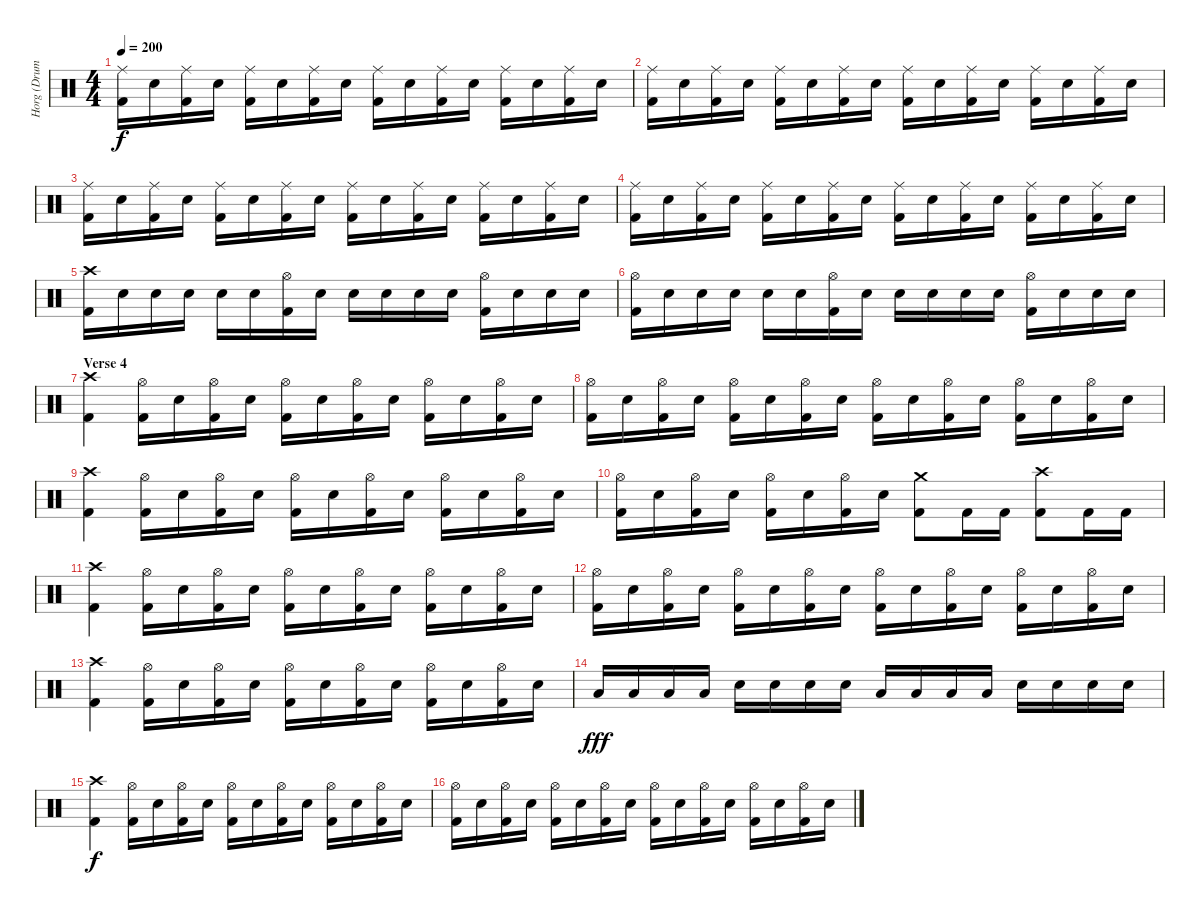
\track ("Horg (Drums)" "Horg (Drum") {instrument percussion}
\staff {score}
\articulation defaults
\ts (4 4)
\tempo 200
\clef neutral
\ks c
("Ride (middle)" "Kick (hit) 2").16{dy f} "Electric Snare (hit)".16 ("Ride (middle)" "Kick (hit) 2").16 "Electric Snare (hit)".16 ("Ride (middle)" "Kick (hit) 2").16 "Electric Snare (hit)".16 ("Ride (middle)" "Kick (hit) 2").16 "Electric Snare (hit)".16 ("Ride (middle)" "Kick (hit) 2").16 "Electric Snare (hit)".16 ("Ride (middle)" "Kick (hit) 2").16 "Electric Snare (hit)".16 ("Ride (middle)" "Kick (hit) 2").16 "Electric Snare (hit)".16 ("Ride (middle)" "Kick (hit) 2").16 "Electric Snare (hit)".16 |
("Ride (middle)" "Kick (hit) 2").16 "Electric Snare (hit)".16 ("Ride (middle)" "Kick (hit) 2").16 "Electric Snare (hit)".16 ("Ride (middle)" "Kick (hit) 2").16 "Electric Snare (hit)".16 ("Ride (middle)" "Kick (hit) 2").16 "Electric Snare (hit)".16 ("Ride (middle)" "Kick (hit) 2").16 "Electric Snare (hit)".16 ("Ride (middle)" "Kick (hit) 2").16 "Electric Snare (hit)".16 ("Ride (middle)" "Kick (hit) 2").16 "Electric Snare (hit)".16 ("Ride (middle)" "Kick (hit) 2").16 "Electric Snare (hit)".16 |
("Ride (middle)" "Kick (hit) 2").16 "Electric Snare (hit)".16 ("Ride (middle)" "Kick (hit) 2").16 "Electric Snare (hit)".16 ("Ride (middle)" "Kick (hit) 2").16 "Electric Snare (hit)".16 ("Ride (middle)" "Kick (hit) 2").16 "Electric Snare (hit)".16 ("Ride (middle)" "Kick (hit) 2").16 "Electric Snare (hit)".16 ("Ride (middle)" "Kick (hit) 2").16 "Electric Snare (hit)".16 ("Ride (middle)" "Kick (hit) 2").16 "Electric Snare (hit)".16 ("Ride (middle)" "Kick (hit) 2").16 "Electric Snare (hit)".16 |
("Ride (middle)" "Kick (hit) 2").16 "Electric Snare (hit)".16 ("Ride (middle)" "Kick (hit) 2").16 "Electric Snare (hit)".16 ("Ride (middle)" "Kick (hit) 2").16 "Electric Snare (hit)".16 ("Ride (middle)" "Kick (hit) 2").16 "Electric Snare (hit)".16 ("Ride (middle)" "Kick (hit) 2").16 "Electric Snare (hit)".16 ("Ride (middle)" "Kick (hit) 2").16 "Electric Snare (hit)".16 ("Ride (middle)" "Kick (hit) 2").16 "Electric Snare (hit)".16 ("Ride (middle)" "Kick (hit) 2").16 "Electric Snare (hit)".16 |
("Crash high (hit)" "Kick (hit) 2").16 "Electric Snare (hit)".16 "Electric Snare (hit)".16 "Electric Snare (hit)".16 "Electric Snare (hit)".16 "Electric Snare (hit)".16 ("Hi-Hat (open)" "Kick (hit) 2").16 "Electric Snare (hit)".16 "Electric Snare (hit)".16 "Electric Snare (hit)".16 "Electric Snare (hit)".16 "Electric Snare (hit)".16 ("Hi-Hat (open)" "Kick (hit) 2").16 "Electric Snare (hit)".16 "Electric Snare (hit)".16 "Electric Snare (hit)".16 |
("Hi-Hat (open)" "Kick (hit) 2").16 "Electric Snare (hit)".16 "Electric Snare (hit)".16 "Electric Snare (hit)".16 "Electric Snare (hit)".16 "Electric Snare (hit)".16 ("Hi-Hat (open)" "Kick (hit) 2").16 "Electric Snare (hit)".16 "Electric Snare (hit)".16 "Electric Snare (hit)".16 "Electric Snare (hit)".16 "Electric Snare (hit)".16 ("Hi-Hat (open)" "Kick (hit) 2").16 "Electric Snare (hit)".16 "Electric Snare (hit)".16 "Electric Snare (hit)".16 |
\section ("" "Verse 4")
("Crash high (hit)" "Kick (hit) 2").4 ("Hi-Hat (open)" "Kick (hit) 2").16 "Electric Snare (hit)".16 ("Hi-Hat (open)" "Kick (hit) 2").16 "Electric Snare (hit)".16 ("Hi-Hat (open)" "Kick (hit) 2").16 "Electric Snare (hit)".16 ("Hi-Hat (open)" "Kick (hit) 2").16 "Electric Snare (hit)".16 ("Hi-Hat (open)" "Kick (hit) 2").16 "Electric Snare (hit)".16 ("Hi-Hat (open)" "Kick (hit) 2").16 "Electric Snare (hit)".16 |
("Hi-Hat (open)" "Kick (hit) 2").16 "Electric Snare (hit)".16 ("Hi-Hat (open)" "Kick (hit) 2").16 "Electric Snare (hit)".16 ("Hi-Hat (open)" "Kick (hit) 2").16 "Electric Snare (hit)".16 ("Hi-Hat (open)" "Kick (hit) 2").16 "Electric Snare (hit)".16 ("Hi-Hat (open)" "Kick (hit) 2").16 "Electric Snare (hit)".16 ("Hi-Hat (open)" "Kick (hit) 2").16 "Electric Snare (hit)".16 ("Hi-Hat (open)" "Kick (hit) 2").16 "Electric Snare (hit)".16 ("Hi-Hat (open)" "Kick (hit) 2").16 "Electric Snare (hit)".16 |
("Crash high (hit)" "Kick (hit) 2").4 ("Hi-Hat (open)" "Kick (hit) 2").16 "Electric Snare (hit)".16 ("Hi-Hat (open)" "Kick (hit) 2").16 "Electric Snare (hit)".16 ("Hi-Hat (open)" "Kick (hit) 2").16 "Electric Snare (hit)".16 ("Hi-Hat (open)" "Kick (hit) 2").16 "Electric Snare (hit)".16 ("Hi-Hat (open)" "Kick (hit) 2").16 "Electric Snare (hit)".16 ("Hi-Hat (open)" "Kick (hit) 2").16 "Electric Snare (hit)".16 |
("Hi-Hat (open)" "Kick (hit) 2").16 "Electric Snare (hit)".16 ("Hi-Hat (open)" "Kick (hit) 2").16 "Electric Snare (hit)".16 ("Hi-Hat (open)" "Kick (hit) 2").16 "Electric Snare (hit)".16 ("Hi-Hat (open)" "Kick (hit) 2").16 "Electric Snare (hit)".16 ("Crash medium (hit)" "Kick (hit) 2").8 "Kick (hit) 2".16 "Kick (hit) 2".16 ("Crash high (hit)" "Kick (hit) 2").8 "Kick (hit) 2".16 "Kick (hit) 2".16 |
("Crash high (hit)" "Kick (hit) 2").4 ("Hi-Hat (open)" "Kick (hit) 2").16 "Electric Snare (hit)".16 ("Hi-Hat (open)" "Kick (hit) 2").16 "Electric Snare (hit)".16 ("Hi-Hat (open)" "Kick (hit) 2").16 "Electric Snare (hit)".16 ("Hi-Hat (open)" "Kick (hit) 2").16 "Electric Snare (hit)".16 ("Hi-Hat (open)" "Kick (hit) 2").16 "Electric Snare (hit)".16 ("Hi-Hat (open)" "Kick (hit) 2").16 "Electric Snare (hit)".16 |
("Hi-Hat (open)" "Kick (hit) 2").16 "Electric Snare (hit)".16 ("Hi-Hat (open)" "Kick (hit) 2").16 "Electric Snare (hit)".16 ("Hi-Hat (open)" "Kick (hit) 2").16 "Electric Snare (hit)".16 ("Hi-Hat (open)" "Kick (hit) 2").16 "Electric Snare (hit)".16 ("Hi-Hat (open)" "Kick (hit) 2").16 "Electric Snare (hit)".16 ("Hi-Hat (open)" "Kick (hit) 2").16 "Electric Snare (hit)".16 ("Hi-Hat (open)" "Kick (hit) 2").16 "Electric Snare (hit)".16 ("Hi-Hat (open)" "Kick (hit) 2").16 "Electric Snare (hit)".16 |
("Crash high (hit)" "Kick (hit) 2").4 ("Hi-Hat (open)" "Kick (hit) 2").16 "Electric Snare (hit)".16 ("Hi-Hat (open)" "Kick (hit) 2").16 "Electric Snare (hit)".16 ("Hi-Hat (open)" "Kick (hit) 2").16 "Electric Snare (hit)".16 ("Hi-Hat (open)" "Kick (hit) 2").16 "Electric Snare (hit)".16 ("Hi-Hat (open)" "Kick (hit) 2").16 "Electric Snare (hit)".16 ("Hi-Hat (open)" "Kick (hit) 2").16 "Electric Snare (hit)".16 |
"Low Tom (hit)".16{dy fff} "Low Tom (hit)".16 "Low Tom (hit)".16 "Low Tom (hit)".16 "Electric Snare (hit)".16 "Electric Snare (hit)".16 "Electric Snare (hit)".16 "Electric Snare (hit)".16 "Low Tom (hit)".16 "Low Tom (hit)".16 "Low Tom (hit)".16 "Low Tom (hit)".16 "Electric Snare (hit)".16 "Electric Snare (hit)".16 "Electric Snare (hit)".16 "Electric Snare (hit)".16 |
("Crash high (hit)" "Kick (hit) 2").4{dy f} ("Hi-Hat (open)" "Kick (hit) 2").16 "Electric Snare (hit)".16 ("Hi-Hat (open)" "Kick (hit) 2").16 "Electric Snare (hit)".16 ("Hi-Hat (open)" "Kick (hit) 2").16 "Electric Snare (hit)".16 ("Hi-Hat (open)" "Kick (hit) 2").16 "Electric Snare (hit)".16 ("Hi-Hat (open)" "Kick (hit) 2").16 "Electric Snare (hit)".16 ("Hi-Hat (open)" "Kick (hit) 2").16 "Electric Snare (hit)".16 |
("Hi-Hat (open)" "Kick (hit) 2").16 "Electric Snare (hit)".16 ("Hi-Hat (open)" "Kick (hit) 2").16 "Electric Snare (hit)".16 ("Hi-Hat (open)" "Kick (hit) 2").16 "Electric Snare (hit)".16 ("Hi-Hat (open)" "Kick (hit) 2").16 "Electric Snare (hit)".16 ("Hi-Hat (open)" "Kick (hit) 2").16 "Electric Snare (hit)".16 ("Hi-Hat (open)" "Kick (hit) 2").16 "Electric Snare (hit)".16 ("Hi-Hat (open)" "Kick (hit) 2").16 "Electric Snare (hit)".16 ("Hi-Hat (open)" "Kick (hit) 2").16 "Electric Snare (hit)".16
